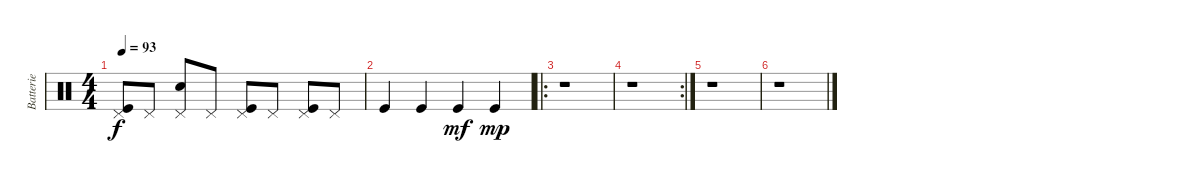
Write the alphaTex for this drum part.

\track ("Batterie" "Batterie") {instrument percussion}
\staff {score}
\articulation defaults
\ts (4 4)
\tempo 93
\clef neutral
\ks c
("Kick (hit)" "Pedal Hi-Hat (hit)").8{dy f} "Pedal Hi-Hat (hit)".8 ("Snare (hit) 2" "Pedal Hi-Hat (hit)").8 "Pedal Hi-Hat (hit)".8 ("Kick (hit)" "Pedal Hi-Hat (hit)").8 "Pedal Hi-Hat (hit)".8 ("Kick (hit)" "Pedal Hi-Hat (hit)").8 "Pedal Hi-Hat (hit)".8 |
"Kick (hit)".4 "Kick (hit)".4 "Kick (hit)".4{dy mf} "Kick (hit)".4{dy mp} |
\ro
r.1 |
\rc 2
r.1 |
r.1 |
r.1
